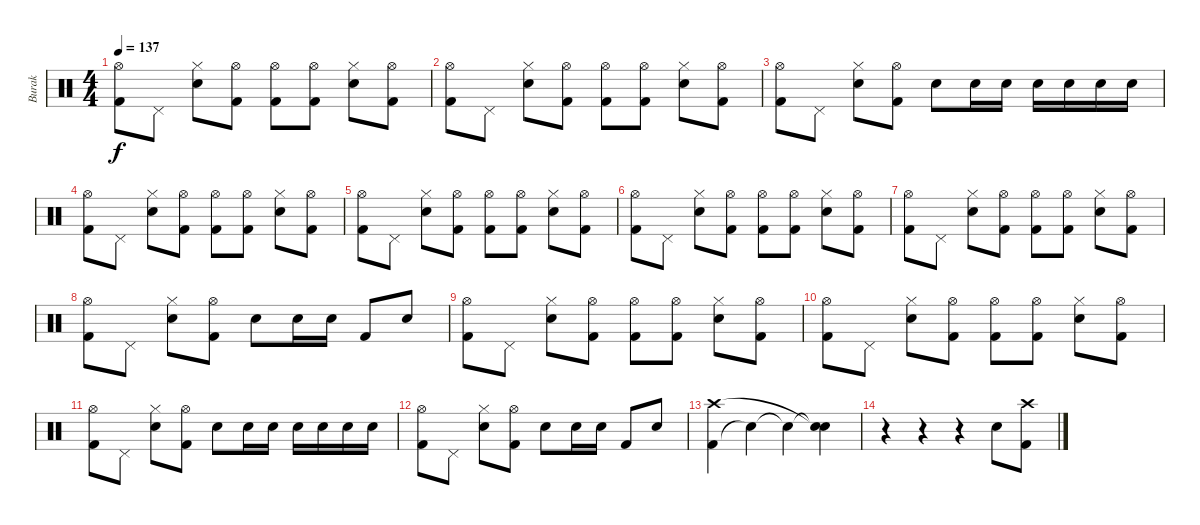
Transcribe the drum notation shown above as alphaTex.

\track ("Burak" "Burak") {instrument percussion}
\staff {score}
\articulation defaults
\ts (4 4)
\tempo 137
\clef neutral
\ks c
("Kick (hit) 2" "Hi-Hat (open)").8{dy f} "Pedal Hi-Hat (hit)".8 ("Electric Snare (hit)" "Hi-Hat (closed)").8 ("Kick (hit) 2" "Hi-Hat (open)").8 ("Kick (hit) 2" "Hi-Hat (open)").8 ("Kick (hit) 2" "Hi-Hat (open)").8 ("Electric Snare (hit)" "Hi-Hat (closed)").8 ("Kick (hit) 2" "Hi-Hat (open)").8 |
("Kick (hit) 2" "Hi-Hat (open)").8 "Pedal Hi-Hat (hit)".8 ("Electric Snare (hit)" "Hi-Hat (closed)").8 ("Kick (hit) 2" "Hi-Hat (open)").8 ("Kick (hit) 2" "Hi-Hat (open)").8 ("Kick (hit) 2" "Hi-Hat (open)").8 ("Electric Snare (hit)" "Hi-Hat (closed)").8 ("Kick (hit) 2" "Hi-Hat (open)").8 |
("Kick (hit) 2" "Hi-Hat (open)").8 "Pedal Hi-Hat (hit)".8 ("Electric Snare (hit)" "Hi-Hat (closed)").8 ("Kick (hit) 2" "Hi-Hat (open)").8 "Electric Snare (hit)".8 "Electric Snare (hit)".16 "Electric Snare (hit)".16 "Electric Snare (hit)".16 "Electric Snare (hit)".16 "Electric Snare (hit)".16 "Electric Snare (hit)".16 |
("Kick (hit) 2" "Hi-Hat (open)").8 "Pedal Hi-Hat (hit)".8 ("Electric Snare (hit)" "Hi-Hat (closed)").8 ("Kick (hit) 2" "Hi-Hat (open)").8 ("Kick (hit) 2" "Hi-Hat (open)").8 ("Kick (hit) 2" "Hi-Hat (open)").8 ("Electric Snare (hit)" "Hi-Hat (closed)").8 ("Kick (hit) 2" "Hi-Hat (open)").8 |
("Kick (hit) 2" "Hi-Hat (open)").8 "Pedal Hi-Hat (hit)".8 ("Electric Snare (hit)" "Hi-Hat (closed)").8 ("Kick (hit) 2" "Hi-Hat (open)").8 ("Kick (hit) 2" "Hi-Hat (open)").8 ("Kick (hit) 2" "Hi-Hat (open)").8 ("Electric Snare (hit)" "Hi-Hat (closed)").8 ("Kick (hit) 2" "Hi-Hat (open)").8 |
("Kick (hit) 2" "Hi-Hat (open)").8 "Pedal Hi-Hat (hit)".8 ("Electric Snare (hit)" "Hi-Hat (closed)").8 ("Kick (hit) 2" "Hi-Hat (open)").8 ("Kick (hit) 2" "Hi-Hat (open)").8 ("Kick (hit) 2" "Hi-Hat (open)").8 ("Electric Snare (hit)" "Hi-Hat (closed)").8 ("Kick (hit) 2" "Hi-Hat (open)").8 |
("Kick (hit) 2" "Hi-Hat (open)").8 "Pedal Hi-Hat (hit)".8 ("Electric Snare (hit)" "Hi-Hat (closed)").8 ("Kick (hit) 2" "Hi-Hat (open)").8 ("Kick (hit) 2" "Hi-Hat (open)").8 ("Kick (hit) 2" "Hi-Hat (open)").8 ("Electric Snare (hit)" "Hi-Hat (closed)").8 ("Kick (hit) 2" "Hi-Hat (open)").8 |
("Kick (hit) 2" "Hi-Hat (open)").8 "Pedal Hi-Hat (hit)".8 ("Electric Snare (hit)" "Hi-Hat (closed)").8 ("Kick (hit) 2" "Hi-Hat (open)").8 "Electric Snare (hit)".8 "Electric Snare (hit)".16 "Electric Snare (hit)".16 "Kick (hit) 2".8 "Electric Snare (hit)".8 |
("Kick (hit) 2" "Hi-Hat (open)").8 "Pedal Hi-Hat (hit)".8 ("Electric Snare (hit)" "Hi-Hat (closed)").8 ("Kick (hit) 2" "Hi-Hat (open)").8 ("Kick (hit) 2" "Hi-Hat (open)").8 ("Kick (hit) 2" "Hi-Hat (open)").8 ("Electric Snare (hit)" "Hi-Hat (closed)").8 ("Kick (hit) 2" "Hi-Hat (open)").8 |
("Kick (hit) 2" "Hi-Hat (open)").8 "Pedal Hi-Hat (hit)".8 ("Electric Snare (hit)" "Hi-Hat (closed)").8 ("Kick (hit) 2" "Hi-Hat (open)").8 ("Kick (hit) 2" "Hi-Hat (open)").8 ("Kick (hit) 2" "Hi-Hat (open)").8 ("Electric Snare (hit)" "Hi-Hat (closed)").8 ("Kick (hit) 2" "Hi-Hat (open)").8 |
("Kick (hit) 2" "Hi-Hat (open)").8 "Pedal Hi-Hat (hit)".8 ("Electric Snare (hit)" "Hi-Hat (closed)").8 ("Kick (hit) 2" "Hi-Hat (open)").8 "Electric Snare (hit)".8 "Electric Snare (hit)".16 "Electric Snare (hit)".16 "Electric Snare (hit)".16 "Electric Snare (hit)".16 "Electric Snare (hit)".16 "Electric Snare (hit)".16 |
("Kick (hit) 2" "Hi-Hat (open)").8 "Pedal Hi-Hat (hit)".8 ("Electric Snare (hit)" "Hi-Hat (closed)").8 ("Kick (hit) 2" "Hi-Hat (open)").8 "Electric Snare (hit)".8 "Electric Snare (hit)".16 "Electric Snare (hit)".16 "Kick (hit) 2".8 "Electric Snare (hit)".8 |
("Kick (hit) 2" "Crash high (hit)").4 "Snare (hit)"{t}.4 "Snare (hit)"{t}.4 ("Snare (hit)"{t} "Snare (hit)"{t}).4 |
r.4 r.4 r.4 "Electric Snare (hit)".8 ("Kick (hit) 2" "Crash high (hit)").8
